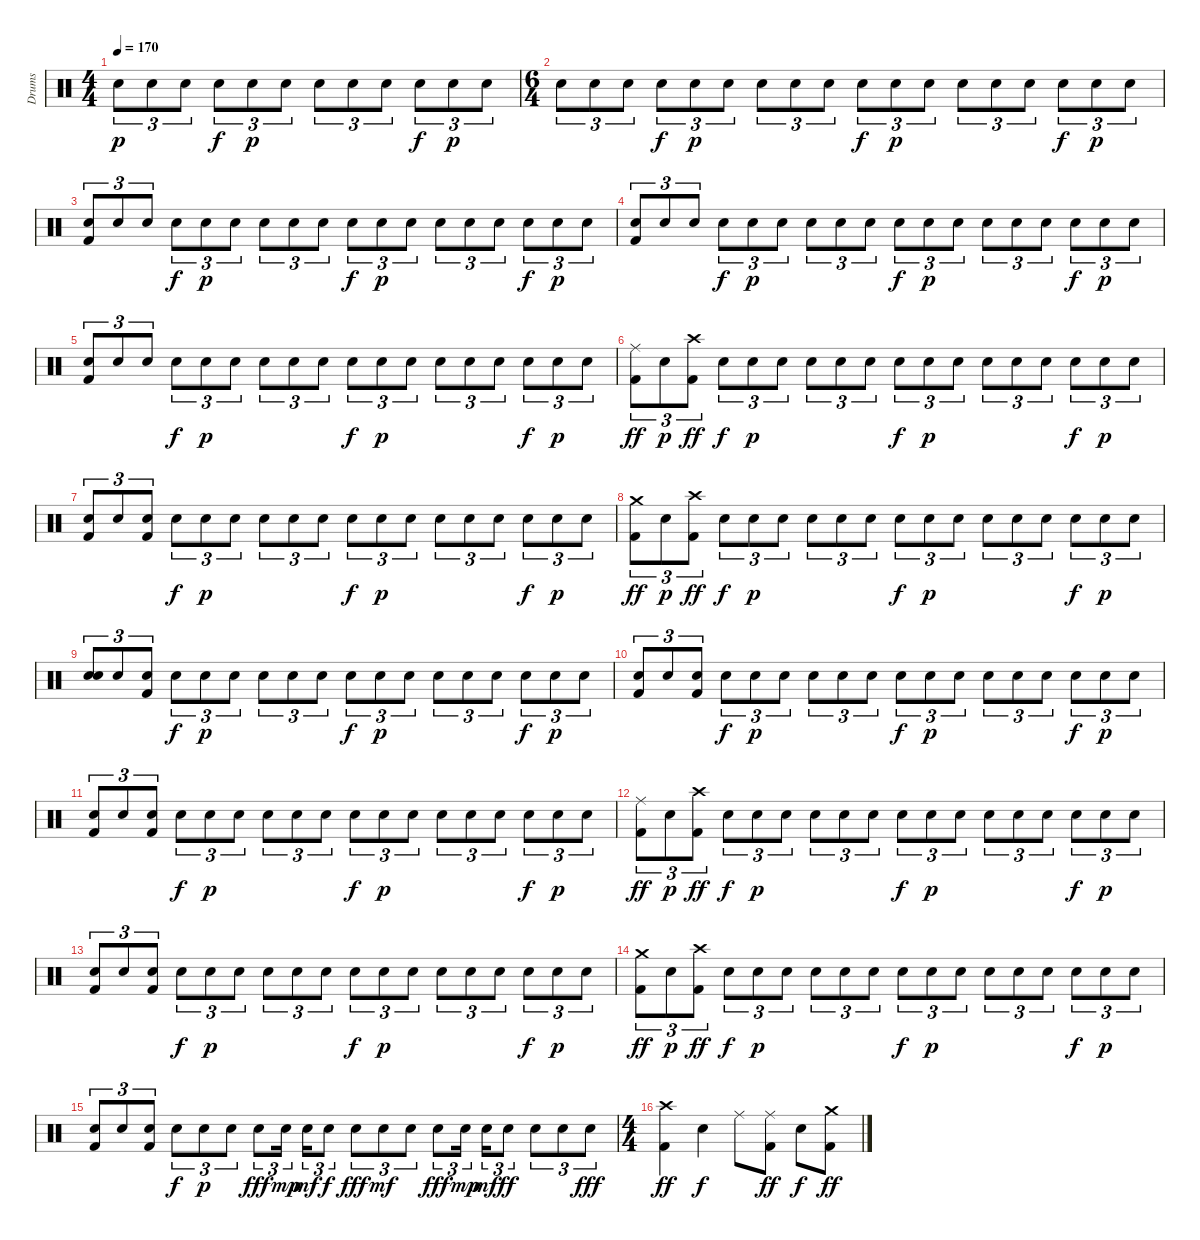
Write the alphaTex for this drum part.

\track ("Drums" "Drums") {instrument percussion}
\staff {score}
\articulation defaults
\ts (4 4)
\tempo 170
\clef neutral
\ks c "Snare (hit) 2".8{tu (3 2) dy p} "Snare (hit) 2".8{tu (3 2)} "Snare (hit) 2".8{tu (3 2)} "Snare (hit) 2".8{tu (3 2) dy f} "Snare (hit) 2".8{tu (3 2) dy p} "Snare (hit) 2".8{tu (3 2)} "Snare (hit) 2".8{tu (3 2)} "Snare (hit) 2".8{tu (3 2)} "Snare (hit) 2".8{tu (3 2)} "Snare (hit) 2".8{tu (3 2) dy f} "Snare (hit) 2".8{tu (3 2) dy p} "Snare (hit) 2".8{tu (3 2)}
|
\ts (6 4)
"Snare (hit) 2".8{tu (3 2)} "Snare (hit) 2".8{tu (3 2)} "Snare (hit) 2".8{tu (3 2)} "Snare (hit) 2".8{tu (3 2) dy f} "Snare (hit) 2".8{tu (3 2) dy p} "Snare (hit) 2".8{tu (3 2)} "Snare (hit) 2".8{tu (3 2)} "Snare (hit) 2".8{tu (3 2)} "Snare (hit) 2".8{tu (3 2)} "Snare (hit) 2".8{tu (3 2) dy f} "Snare (hit) 2".8{tu (3 2) dy p} "Snare (hit) 2".8{tu (3 2)} "Snare (hit) 2".8{tu (3 2)} "Snare (hit) 2".8{tu (3 2)} "Snare (hit) 2".8{tu (3 2)} "Snare (hit) 2".8{tu (3 2) dy f} "Snare (hit) 2".8{tu (3 2) dy p} "Snare (hit) 2".8{tu (3 2)} |
("Snare (hit) 2" "Kick (hit) 2").8{tu (3 2)} "Snare (hit) 2".8{tu (3 2)} "Snare (hit) 2".8{tu (3 2)} "Snare (hit) 2".8{tu (3 2) dy f} "Snare (hit) 2".8{tu (3 2) dy p} "Snare (hit) 2".8{tu (3 2)} "Snare (hit) 2".8{tu (3 2)} "Snare (hit) 2".8{tu (3 2)} "Snare (hit) 2".8{tu (3 2)} "Snare (hit) 2".8{tu (3 2) dy f} "Snare (hit) 2".8{tu (3 2) dy p} "Snare (hit) 2".8{tu (3 2)} "Snare (hit) 2".8{tu (3 2)} "Snare (hit) 2".8{tu (3 2)} "Snare (hit) 2".8{tu (3 2)} "Snare (hit) 2".8{tu (3 2) dy f} "Snare (hit) 2".8{tu (3 2) dy p} "Snare (hit) 2".8{tu (3 2)} |
("Snare (hit) 2" "Kick (hit) 2").8{tu (3 2)} "Snare (hit) 2".8{tu (3 2)} "Snare (hit) 2".8{tu (3 2)} "Snare (hit) 2".8{tu (3 2) dy f} "Snare (hit) 2".8{tu (3 2) dy p} "Snare (hit) 2".8{tu (3 2)} "Snare (hit) 2".8{tu (3 2)} "Snare (hit) 2".8{tu (3 2)} "Snare (hit) 2".8{tu (3 2)} "Snare (hit) 2".8{tu (3 2) dy f} "Snare (hit) 2".8{tu (3 2) dy p} "Snare (hit) 2".8{tu (3 2)} "Snare (hit) 2".8{tu (3 2)} "Snare (hit) 2".8{tu (3 2)} "Snare (hit) 2".8{tu (3 2)} "Snare (hit) 2".8{tu (3 2) dy f} "Snare (hit) 2".8{tu (3 2) dy p} "Snare (hit) 2".8{tu (3 2)} |
("Snare (hit) 2" "Kick (hit) 2").8{tu (3 2)} "Snare (hit) 2".8{tu (3 2)} "Snare (hit) 2".8{tu (3 2)} "Snare (hit) 2".8{tu (3 2) dy f} "Snare (hit) 2".8{tu (3 2) dy p} "Snare (hit) 2".8{tu (3 2)} "Snare (hit) 2".8{tu (3 2)} "Snare (hit) 2".8{tu (3 2)} "Snare (hit) 2".8{tu (3 2)} "Snare (hit) 2".8{tu (3 2) dy f} "Snare (hit) 2".8{tu (3 2) dy p} "Snare (hit) 2".8{tu (3 2)} "Snare (hit) 2".8{tu (3 2)} "Snare (hit) 2".8{tu (3 2)} "Snare (hit) 2".8{tu (3 2)} "Snare (hit) 2".8{tu (3 2) dy f} "Snare (hit) 2".8{tu (3 2) dy p} "Snare (hit) 2".8{tu (3 2)} |
("Ride (middle)" "Kick (hit) 2").8{tu (3 2) dy ff} "Snare (hit) 2".8{tu (3 2) dy p} ("Crash high (hit)" "Kick (hit) 2").8{tu (3 2) dy ff} "Snare (hit) 2".8{tu (3 2) dy f} "Snare (hit) 2".8{tu (3 2) dy p} "Snare (hit) 2".8{tu (3 2)} "Snare (hit) 2".8{tu (3 2)} "Snare (hit) 2".8{tu (3 2)} "Snare (hit) 2".8{tu (3 2)} "Snare (hit) 2".8{tu (3 2) dy f} "Snare (hit) 2".8{tu (3 2) dy p} "Snare (hit) 2".8{tu (3 2)} "Snare (hit) 2".8{tu (3 2)} "Snare (hit) 2".8{tu (3 2)} "Snare (hit) 2".8{tu (3 2)} "Snare (hit) 2".8{tu (3 2) dy f} "Snare (hit) 2".8{tu (3 2) dy p} "Snare (hit) 2".8{tu (3 2)} |
("Kick (hit) 2" "Snare (hit) 2").8{tu (3 2)} "Snare (hit) 2".8{tu (3 2)} ("Kick (hit) 2" "Snare (hit) 2").8{tu (3 2)} "Snare (hit) 2".8{tu (3 2) dy f} "Snare (hit) 2".8{tu (3 2) dy p} "Snare (hit) 2".8{tu (3 2)} "Snare (hit) 2".8{tu (3 2)} "Snare (hit) 2".8{tu (3 2)} "Snare (hit) 2".8{tu (3 2)} "Snare (hit) 2".8{tu (3 2) dy f} "Snare (hit) 2".8{tu (3 2) dy p} "Snare (hit) 2".8{tu (3 2)} "Snare (hit) 2".8{tu (3 2)} "Snare (hit) 2".8{tu (3 2)} "Snare (hit) 2".8{tu (3 2)} "Snare (hit) 2".8{tu (3 2) dy f} "Snare (hit) 2".8{tu (3 2) dy p} "Snare (hit) 2".8{tu (3 2)} |
("Crash medium (hit)" "Kick (hit) 2").8{tu (3 2) dy ff} "Snare (hit) 2".8{tu (3 2) dy p} ("Crash high (hit)" "Kick (hit) 2").8{tu (3 2) dy ff} "Snare (hit) 2".8{tu (3 2) dy f} "Snare (hit) 2".8{tu (3 2) dy p} "Snare (hit) 2".8{tu (3 2)} "Snare (hit) 2".8{tu (3 2)} "Snare (hit) 2".8{tu (3 2)} "Snare (hit) 2".8{tu (3 2)} "Snare (hit) 2".8{tu (3 2) dy f} "Snare (hit) 2".8{tu (3 2) dy p} "Snare (hit) 2".8{tu (3 2)} "Snare (hit) 2".8{tu (3 2)} "Snare (hit) 2".8{tu (3 2)} "Snare (hit) 2".8{tu (3 2)} "Snare (hit) 2".8{tu (3 2) dy f} "Snare (hit) 2".8{tu (3 2) dy p} "Snare (hit) 2".8{tu (3 2)} |
("Snare (hit) 2" "Snare (hit) 2").8{tu (3 2)} "Snare (hit) 2".8{tu (3 2)} ("Kick (hit) 2" "Snare (hit) 2").8{tu (3 2)} "Snare (hit) 2".8{tu (3 2) dy f} "Snare (hit) 2".8{tu (3 2) dy p} "Snare (hit) 2".8{tu (3 2)} "Snare (hit) 2".8{tu (3 2)} "Snare (hit) 2".8{tu (3 2)} "Snare (hit) 2".8{tu (3 2)} "Snare (hit) 2".8{tu (3 2) dy f} "Snare (hit) 2".8{tu (3 2) dy p} "Snare (hit) 2".8{tu (3 2)} "Snare (hit) 2".8{tu (3 2)} "Snare (hit) 2".8{tu (3 2)} "Snare (hit) 2".8{tu (3 2)} "Snare (hit) 2".8{tu (3 2) dy f} "Snare (hit) 2".8{tu (3 2) dy p} "Snare (hit) 2".8{tu (3 2)} |
("Kick (hit) 2" "Snare (hit) 2").8{tu (3 2)} "Snare (hit) 2".8{tu (3 2)} ("Kick (hit) 2" "Snare (hit) 2").8{tu (3 2)} "Snare (hit) 2".8{tu (3 2) dy f} "Snare (hit) 2".8{tu (3 2) dy p} "Snare (hit) 2".8{tu (3 2)} "Snare (hit) 2".8{tu (3 2)} "Snare (hit) 2".8{tu (3 2)} "Snare (hit) 2".8{tu (3 2)} "Snare (hit) 2".8{tu (3 2) dy f} "Snare (hit) 2".8{tu (3 2) dy p} "Snare (hit) 2".8{tu (3 2)} "Snare (hit) 2".8{tu (3 2)} "Snare (hit) 2".8{tu (3 2)} "Snare (hit) 2".8{tu (3 2)} "Snare (hit) 2".8{tu (3 2) dy f} "Snare (hit) 2".8{tu (3 2) dy p} "Snare (hit) 2".8{tu (3 2)} |
("Kick (hit) 2" "Snare (hit) 2").8{tu (3 2)} "Snare (hit) 2".8{tu (3 2)} ("Kick (hit) 2" "Snare (hit) 2").8{tu (3 2)} "Snare (hit) 2".8{tu (3 2) dy f} "Snare (hit) 2".8{tu (3 2) dy p} "Snare (hit) 2".8{tu (3 2)} "Snare (hit) 2".8{tu (3 2)} "Snare (hit) 2".8{tu (3 2)} "Snare (hit) 2".8{tu (3 2)} "Snare (hit) 2".8{tu (3 2) dy f} "Snare (hit) 2".8{tu (3 2) dy p} "Snare (hit) 2".8{tu (3 2)} "Snare (hit) 2".8{tu (3 2)} "Snare (hit) 2".8{tu (3 2)} "Snare (hit) 2".8{tu (3 2)} "Snare (hit) 2".8{tu (3 2) dy f} "Snare (hit) 2".8{tu (3 2) dy p} "Snare (hit) 2".8{tu (3 2)} |
("Ride (middle)" "Kick (hit) 2").8{tu (3 2) dy ff} "Snare (hit) 2".8{tu (3 2) dy p} ("Crash high (hit)" "Kick (hit) 2").8{tu (3 2) dy ff} "Snare (hit) 2".8{tu (3 2) dy f} "Snare (hit) 2".8{tu (3 2) dy p} "Snare (hit) 2".8{tu (3 2)} "Snare (hit) 2".8{tu (3 2)} "Snare (hit) 2".8{tu (3 2)} "Snare (hit) 2".8{tu (3 2)} "Snare (hit) 2".8{tu (3 2) dy f} "Snare (hit) 2".8{tu (3 2) dy p} "Snare (hit) 2".8{tu (3 2)} "Snare (hit) 2".8{tu (3 2)} "Snare (hit) 2".8{tu (3 2)} "Snare (hit) 2".8{tu (3 2)} "Snare (hit) 2".8{tu (3 2) dy f} "Snare (hit) 2".8{tu (3 2) dy p} "Snare (hit) 2".8{tu (3 2)} |
("Kick (hit) 2" "Snare (hit) 2").8{tu (3 2)} "Snare (hit) 2".8{tu (3 2)} ("Kick (hit) 2" "Snare (hit) 2").8{tu (3 2)} "Snare (hit) 2".8{tu (3 2) dy f} "Snare (hit) 2".8{tu (3 2) dy p} "Snare (hit) 2".8{tu (3 2)} "Snare (hit) 2".8{tu (3 2)} "Snare (hit) 2".8{tu (3 2)} "Snare (hit) 2".8{tu (3 2)} "Snare (hit) 2".8{tu (3 2) dy f} "Snare (hit) 2".8{tu (3 2) dy p} "Snare (hit) 2".8{tu (3 2)} "Snare (hit) 2".8{tu (3 2)} "Snare (hit) 2".8{tu (3 2)} "Snare (hit) 2".8{tu (3 2)} "Snare (hit) 2".8{tu (3 2) dy f} "Snare (hit) 2".8{tu (3 2) dy p} "Snare (hit) 2".8{tu (3 2)} |
("Crash medium (hit)" "Kick (hit) 2").8{tu (3 2) dy ff} "Snare (hit) 2".8{tu (3 2) dy p} ("Crash high (hit)" "Kick (hit) 2").8{tu (3 2) dy ff} "Snare (hit) 2".8{tu (3 2) dy f} "Snare (hit) 2".8{tu (3 2) dy p} "Snare (hit) 2".8{tu (3 2)} "Snare (hit) 2".8{tu (3 2)} "Snare (hit) 2".8{tu (3 2)} "Snare (hit) 2".8{tu (3 2)} "Snare (hit) 2".8{tu (3 2) dy f} "Snare (hit) 2".8{tu (3 2) dy p} "Snare (hit) 2".8{tu (3 2)} "Snare (hit) 2".8{tu (3 2)} "Snare (hit) 2".8{tu (3 2)} "Snare (hit) 2".8{tu (3 2)} "Snare (hit) 2".8{tu (3 2) dy f} "Snare (hit) 2".8{tu (3 2) dy p} "Snare (hit) 2".8{tu (3 2)} |
("Kick (hit) 2" "Snare (hit) 2").8{tu (3 2)} "Snare (hit) 2".8{tu (3 2)} ("Kick (hit) 2" "Snare (hit) 2").8{tu (3 2)} "Snare (hit) 2".8{tu (3 2) dy f} "Snare (hit) 2".8{tu (3 2) dy p} "Snare (hit) 2".8{tu (3 2)} "Snare (hit) 2".8{tu (3 2) dy fff} "Snare (hit) 2".16{tu (3 2) dy mp} "Snare (hit) 2".16{tu (3 2) dy mf} "Snare (hit) 2".8{tu (3 2) dy f} "Snare (hit) 2".8{tu (3 2) dy fff} "Snare (hit) 2".8{tu (3 2) dy mf} "Snare (hit) 2".8{tu (3 2)} "Snare (hit) 2".8{tu (3 2) dy fff} "Snare (hit) 2".16{tu (3 2) dy mp} "Snare (hit) 2".16{tu (3 2) dy mf} "Snare (hit) 2".8{tu (3 2) dy ff} "Snare (hit) 2".8{tu (3 2)} "Snare (hit) 2".8{tu (3 2)} "Snare (hit) 2".8{tu (3 2) dy fff} |
\ts (4 4)
("Crash high (hit)" "Kick (hit) 2").4{dy ff} "Snare (hit) 2".4{dy f} "Ride (middle)".8 ("Ride (middle)" "Kick (hit) 2").8{dy ff} "Snare (hit) 2".8{dy f} ("Crash medium (hit)" "Kick (hit) 2").8{dy ff}
